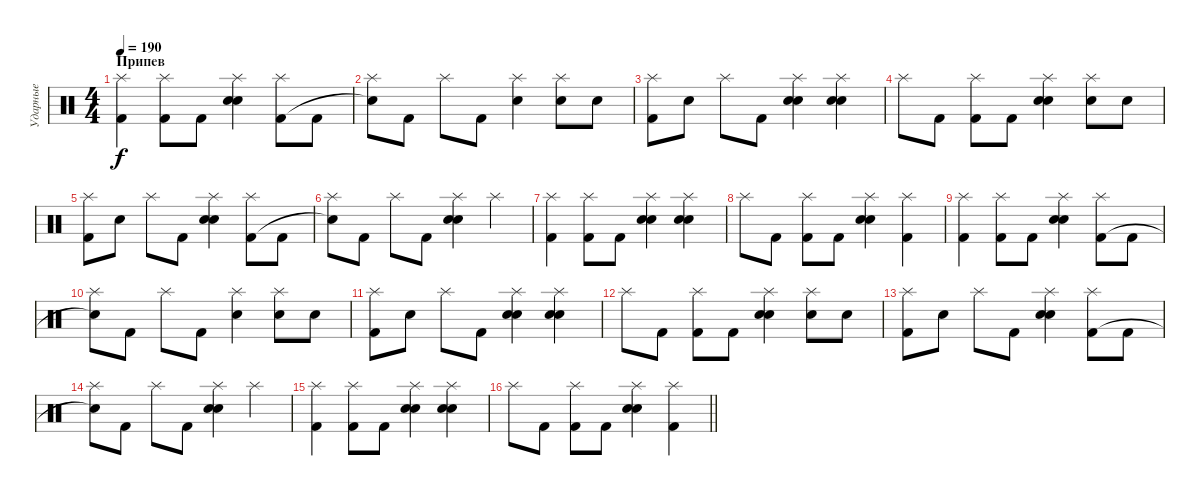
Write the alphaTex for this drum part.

\track ("Ударные" "Ударные") {instrument percussion}
\staff {score}
\articulation defaults
\ts (4 4)
\section ("" "Припев")
\tempo 190
\clef neutral
\ks c
("Splash (hit)" "Kick (hit) 2").4{dy f} ("Splash (hit)" "Kick (hit) 2").8 "Kick (hit) 2".8 ("Splash (hit)" "Electric Snare (hit)" "Snare (hit) 2").4 ("Splash (hit)" "Kick (hit) 2").8 "Kick (hit) 2".8 |
("Splash (hit)" "Snare (hit)"{t}).8 "Kick (hit) 2".8 "Splash (hit)".8 "Kick (hit) 2".8 ("Splash (hit)" "Snare (hit) 2").4 ("Splash (hit)" "Electric Snare (hit)").8 "Electric Snare (hit)".8 |
("Splash (hit)" "Kick (hit) 2").8 "Electric Snare (hit)".8 "Splash (hit)".8 "Kick (hit) 2".8 ("Splash (hit)" "Electric Snare (hit)" "Snare (hit) 2").4 ("Splash (hit)" "Electric Snare (hit)" "Snare (hit) 2").4 |
"Splash (hit)".8 "Kick (hit) 2".8 ("Splash (hit)" "Kick (hit) 2").8 "Kick (hit) 2".8 ("Splash (hit)" "Electric Snare (hit)" "Snare (hit) 2").4 ("Splash (hit)" "Electric Snare (hit)").8 "Electric Snare (hit)".8 |
("Splash (hit)" "Kick (hit) 2").8 "Electric Snare (hit)".8 "Splash (hit)".8 "Kick (hit) 2".8 ("Splash (hit)" "Electric Snare (hit)" "Snare (hit) 2").4 ("Splash (hit)" "Kick (hit) 2").8 "Kick (hit) 2".8 |
("Splash (hit)" "Snare (hit)"{t}).8 "Kick (hit) 2".8 "Splash (hit)".8 "Kick (hit) 2".8 ("Splash (hit)" "Electric Snare (hit)" "Snare (hit) 2").4 "Splash (hit)".4 |
("Splash (hit)" "Kick (hit) 2").4 ("Splash (hit)" "Kick (hit) 2").8 "Kick (hit) 2".8 ("Splash (hit)" "Electric Snare (hit)" "Snare (hit) 2").4 ("Splash (hit)" "Electric Snare (hit)" "Snare (hit) 2").4 |
"Splash (hit)".8 "Kick (hit) 2".8 ("Splash (hit)" "Kick (hit) 2").8 "Kick (hit) 2".8 ("Splash (hit)" "Electric Snare (hit)" "Snare (hit) 2").4 ("Splash (hit)" "Kick (hit) 2").4 |
("Splash (hit)" "Kick (hit) 2").4 ("Splash (hit)" "Kick (hit) 2").8 "Kick (hit) 2".8 ("Splash (hit)" "Electric Snare (hit)" "Snare (hit) 2").4 ("Splash (hit)" "Kick (hit) 2").8 "Kick (hit) 2".8 |
("Splash (hit)" "Snare (hit)"{t}).8 "Kick (hit) 2".8 "Splash (hit)".8 "Kick (hit) 2".8 ("Splash (hit)" "Snare (hit) 2").4 ("Splash (hit)" "Electric Snare (hit)").8 "Electric Snare (hit)".8 |
("Splash (hit)" "Kick (hit) 2").8 "Electric Snare (hit)".8 "Splash (hit)".8 "Kick (hit) 2".8 ("Splash (hit)" "Electric Snare (hit)" "Snare (hit) 2").4 ("Splash (hit)" "Electric Snare (hit)" "Snare (hit) 2").4 |
"Splash (hit)".8 "Kick (hit) 2".8 ("Splash (hit)" "Kick (hit) 2").8 "Kick (hit) 2".8 ("Splash (hit)" "Electric Snare (hit)" "Snare (hit) 2").4 ("Splash (hit)" "Electric Snare (hit)").8 "Electric Snare (hit)".8 |
("Splash (hit)" "Kick (hit) 2").8 "Electric Snare (hit)".8 "Splash (hit)".8 "Kick (hit) 2".8 ("Splash (hit)" "Electric Snare (hit)" "Snare (hit) 2").4 ("Splash (hit)" "Kick (hit) 2").8 "Kick (hit) 2".8 |
("Splash (hit)" "Snare (hit)"{t}).8 "Kick (hit) 2".8 "Splash (hit)".8 "Kick (hit) 2".8 ("Splash (hit)" "Electric Snare (hit)" "Snare (hit) 2").4 "Splash (hit)".4 |
("Splash (hit)" "Kick (hit) 2").4 ("Splash (hit)" "Kick (hit) 2").8 "Kick (hit) 2".8 ("Splash (hit)" "Electric Snare (hit)" "Snare (hit) 2").4 ("Splash (hit)" "Electric Snare (hit)" "Snare (hit) 2").4 |
\barLineRight lightlight "Splash (hit)".8 "Kick (hit) 2".8
("Splash (hit)" "Kick (hit) 2").8 "Kick (hit) 2".8 ("Splash (hit)" "Electric Snare (hit)" "Snare (hit) 2").4 ("Splash (hit)" "Kick (hit) 2").4
